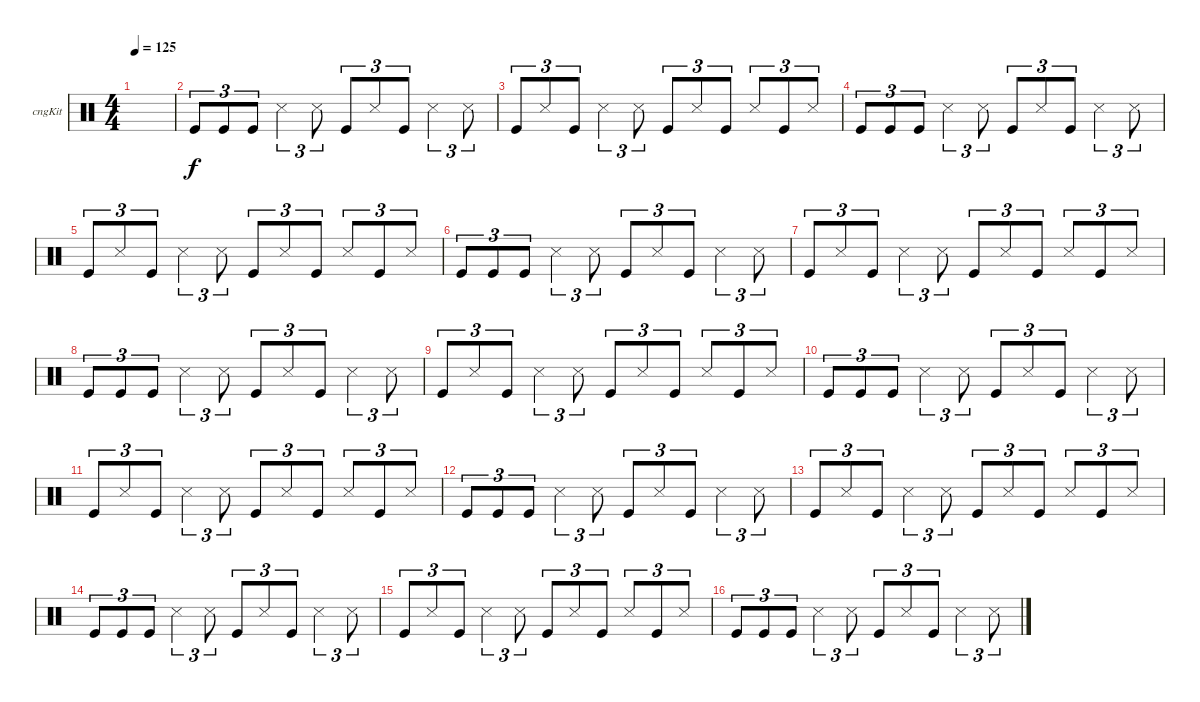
\defaultSystemsLayout 4
\bracketExtendMode groupsimilarinstruments
\firstSystemTrackNameOrientation horizontal
\otherSystemsTrackNameOrientation horizontal
\track ("Congas" "cngKit") {instrument percussion}
\staff {score}
\articulation defaults
\ts (4 4)
\tempo 125
\clef neutral
\scale
0.474178
\ks c
|
\scale
0.262911 "Kick (hit)".8{tu (3 2)} "Kick (hit)".8{tu (3 2)} "Kick (hit)".8{tu (3 2)} "Snare (side stick) 3".4{tu (3 2)} "Snare (side stick) 3".8{tu (3 2)} "Kick (hit)".8{tu (3 2)} "Snare (side stick) 3".8{tu (3 2)} "Kick (hit)".8{tu (3 2)} "Snare (side stick) 3".4{tu (3 2)} "Snare (side stick) 3".8{tu (3 2)} |
"Kick (hit)".8{tu (3 2)} "Snare (side stick) 3".8{tu (3 2)} "Kick (hit)".8{tu (3 2)} "Snare (side stick) 3".4{tu (3 2)} "Snare (side stick) 3".8{tu (3 2)} "Kick (hit)".8{tu (3 2)} "Snare (side stick) 3".8{tu (3 2)} "Kick (hit)".8{tu (3 2)} "Snare (side stick) 3".8{tu (3 2)} "Kick (hit)".8{tu (3 2)} "Snare (side stick) 3".8{tu (3 2)} |
"Kick (hit)".8{tu (3 2)} "Kick (hit)".8{tu (3 2)} "Kick (hit)".8{tu (3 2)} "Snare (side stick) 3".4{tu (3 2)} "Snare (side stick) 3".8{tu (3 2)} "Kick (hit)".8{tu (3 2)} "Snare (side stick) 3".8{tu (3 2)} "Kick (hit)".8{tu (3 2)} "Snare (side stick) 3".4{tu (3 2)} "Snare (side stick) 3".8{tu (3 2)} |
"Kick (hit)".8{tu (3 2)} "Snare (side stick) 3".8{tu (3 2)} "Kick (hit)".8{tu (3 2)} "Snare (side stick) 3".4{tu (3 2)} "Snare (side stick) 3".8{tu (3 2)} "Kick (hit)".8{tu (3 2)} "Snare (side stick) 3".8{tu (3 2)} "Kick (hit)".8{tu (3 2)} "Snare (side stick) 3".8{tu (3 2)} "Kick (hit)".8{tu (3 2)} "Snare (side stick) 3".8{tu (3 2)} |
\scale
0.262911 "Kick (hit)".8{tu (3 2)} "Kick (hit)".8{tu (3 2)} "Kick (hit)".8{tu (3 2)} "Snare (side stick) 3".4{tu (3 2)} "Snare (side stick) 3".8{tu (3 2)} "Kick (hit)".8{tu (3 2)} "Snare (side stick) 3".8{tu (3 2)} "Kick (hit)".8{tu (3 2)} "Snare (side stick) 3".4{tu (3 2)} "Snare (side stick) 3".8{tu (3 2)} |
\scale
0.333333 "Kick (hit)".8{tu (3 2)} "Snare (side stick) 3".8{tu (3 2)} "Kick (hit)".8{tu (3 2)} "Snare (side stick) 3".4{tu (3 2)} "Snare (side stick) 3".8{tu (3 2)} "Kick (hit)".8{tu (3 2)} "Snare (side stick) 3".8{tu (3 2)} "Kick (hit)".8{tu (3 2)} "Snare (side stick) 3".8{tu (3 2)} "Kick (hit)".8{tu (3 2)} "Snare (side stick) 3".8{tu (3 2)} |
\scale
0.333333 "Kick (hit)".8{tu (3 2)} "Kick (hit)".8{tu (3 2)} "Kick (hit)".8{tu (3 2)} "Snare (side stick) 3".4{tu (3 2)} "Snare (side stick) 3".8{tu (3 2)} "Kick (hit)".8{tu (3 2)} "Snare (side stick) 3".8{tu (3 2)} "Kick (hit)".8{tu (3 2)} "Snare (side stick) 3".4{tu (3 2)} "Snare (side stick) 3".8{tu (3 2)} |
"Kick (hit)".8{tu (3 2)} "Snare (side stick) 3".8{tu (3 2)} "Kick (hit)".8{tu (3 2)} "Snare (side stick) 3".4{tu (3 2)} "Snare (side stick) 3".8{tu (3 2)} "Kick (hit)".8{tu (3 2)} "Snare (side stick) 3".8{tu (3 2)} "Kick (hit)".8{tu (3 2)} "Snare (side stick) 3".8{tu (3 2)} "Kick (hit)".8{tu (3 2)} "Snare (side stick) 3".8{tu (3 2)} |
\scale
0.333333 "Kick (hit)".8{tu (3 2)} "Kick (hit)".8{tu (3 2)} "Kick (hit)".8{tu (3 2)} "Snare (side stick) 3".4{tu (3 2)} "Snare (side stick) 3".8{tu (3 2)} "Kick (hit)".8{tu (3 2)} "Snare (side stick) 3".8{tu (3 2)} "Kick (hit)".8{tu (3 2)} "Snare (side stick) 3".4{tu (3 2)} "Snare (side stick) 3".8{tu (3 2)} |
\scale
0.333333 "Kick (hit)".8{tu (3 2)} "Snare (side stick) 3".8{tu (3 2)} "Kick (hit)".8{tu (3 2)} "Snare (side stick) 3".4{tu (3 2)} "Snare (side stick) 3".8{tu (3 2)} "Kick (hit)".8{tu (3 2)} "Snare (side stick) 3".8{tu (3 2)} "Kick (hit)".8{tu (3 2)} "Snare (side stick) 3".8{tu (3 2)} "Kick (hit)".8{tu (3 2)} "Snare (side stick) 3".8{tu (3 2)} |
\scale
0.333333 "Kick (hit)".8{tu (3 2)} "Kick (hit)".8{tu (3 2)} "Kick (hit)".8{tu (3 2)} "Snare (side stick) 3".4{tu (3 2)} "Snare (side stick) 3".8{tu (3 2)} "Kick (hit)".8{tu (3 2)} "Snare (side stick) 3".8{tu (3 2)} "Kick (hit)".8{tu (3 2)} "Snare (side stick) 3".4{tu (3 2)} "Snare (side stick) 3".8{tu (3 2)} |
\scale
0.333333 "Kick (hit)".8{tu (3 2)} "Snare (side stick) 3".8{tu (3 2)} "Kick (hit)".8{tu (3 2)} "Snare (side stick) 3".4{tu (3 2)} "Snare (side stick) 3".8{tu (3 2)} "Kick (hit)".8{tu (3 2)} "Snare (side stick) 3".8{tu (3 2)} "Kick (hit)".8{tu (3 2)} "Snare (side stick) 3".8{tu (3 2)} "Kick (hit)".8{tu (3 2)} "Snare (side stick) 3".8{tu (3 2)} |
\scale
0.333333 "Kick (hit)".8{tu (3 2)} "Kick (hit)".8{tu (3 2)} "Kick (hit)".8{tu (3 2)} "Snare (side stick) 3".4{tu (3 2)} "Snare (side stick) 3".8{tu (3 2)} "Kick (hit)".8{tu (3 2)} "Snare (side stick) 3".8{tu (3 2)} "Kick (hit)".8{tu (3 2)} "Snare (side stick) 3".4{tu (3 2)} "Snare (side stick) 3".8{tu (3 2)} |
\scale
0.333333 "Kick (hit)".8{tu (3 2)} "Snare (side stick) 3".8{tu (3 2)} "Kick (hit)".8{tu (3 2)} "Snare (side stick) 3".4{tu (3 2)} "Snare (side stick) 3".8{tu (3 2)} "Kick (hit)".8{tu (3 2)} "Snare (side stick) 3".8{tu (3 2)} "Kick (hit)".8{tu (3 2)} "Snare (side stick) 3".8{tu (3 2)} "Kick (hit)".8{tu (3 2)} "Snare (side stick) 3".8{tu (3 2)} |
\scale
0.333333 "Kick (hit)".8{tu (3 2)} "Kick (hit)".8{tu (3 2)} "Kick (hit)".8{tu (3 2)} "Snare (side stick) 3".4{tu (3 2)} "Snare (side stick) 3".8{tu (3 2)} "Kick (hit)".8{tu (3 2)} "Snare (side stick) 3".8{tu (3 2)} "Kick (hit)".8{tu (3 2)} "Snare (side stick) 3".4{tu (3 2)} "Snare (side stick) 3".8{tu (3 2)}
